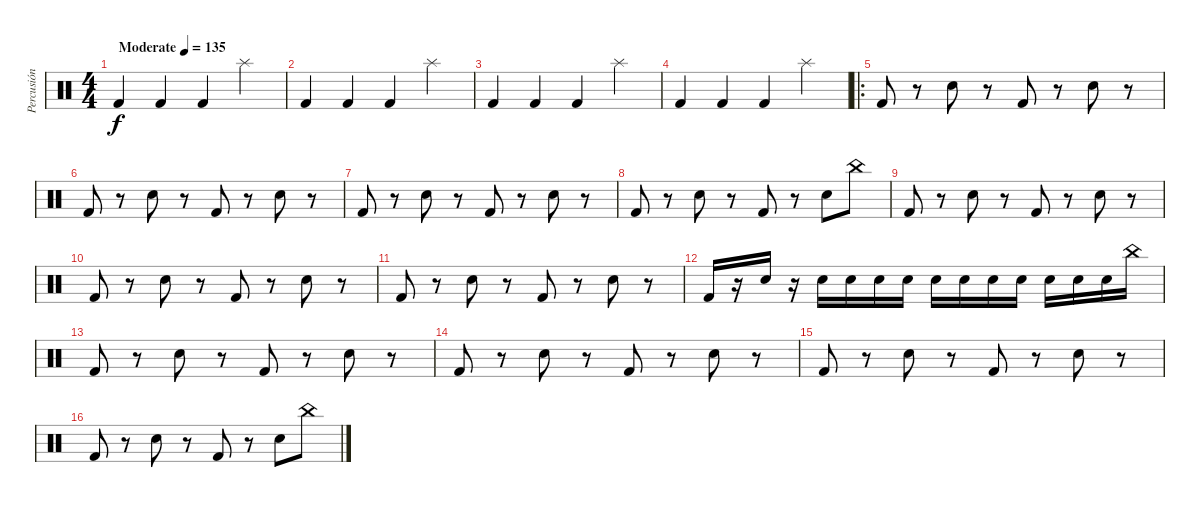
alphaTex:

\track ("Percusión" "Percusión") {instrument percussion}
\staff {score}
\articulation defaults
\ts (4 4)
\tempo (135 "Moderate")
\clef neutral
\ks c "Kick (hit) 2".4{dy f} "Kick (hit) 2".4 "Kick (hit) 2".4 "Splash (hit)".4
|
"Kick (hit) 2".4 "Kick (hit) 2".4 "Kick (hit) 2".4 "Splash (hit)".4 |
"Kick (hit) 2".4 "Kick (hit) 2".4 "Kick (hit) 2".4 "Splash (hit)".4 |
"Kick (hit) 2".4 "Kick (hit) 2".4 "Kick (hit) 2".4 "Splash (hit)".4 |
\ro "Kick (hit) 2".8
r.8 "Electric Snare (hit)".8 r.8 "Kick (hit) 2".8 r.8 "Electric Snare (hit)".8 r.8 |
"Kick (hit) 2".8 r.8 "Electric Snare (hit)".8 r.8 "Kick (hit) 2".8 r.8 "Electric Snare (hit)".8 r.8 |
"Kick (hit) 2".8 r.8 "Electric Snare (hit)".8 r.8 "Kick (hit) 2".8 r.8 "Electric Snare (hit)".8 r.8 |
"Kick (hit) 2".8 r.8 "Electric Snare (hit)".8 r.8 "Kick (hit) 2".8 r.8 "Electric Snare (hit)".8 "China (hit)".8 |
"Kick (hit) 2".8 r.8 "Electric Snare (hit)".8 r.8 "Kick (hit) 2".8 r.8 "Electric Snare (hit)".8 r.8 |
"Kick (hit) 2".8 r.8 "Electric Snare (hit)".8 r.8 "Kick (hit) 2".8 r.8 "Electric Snare (hit)".8 r.8 |
"Kick (hit) 2".8 r.8 "Electric Snare (hit)".8 r.8 "Kick (hit) 2".8 r.8 "Electric Snare (hit)".8 r.8 |
"Kick (hit) 2".16 r.16 "Electric Snare (hit)".16 r.16 "Electric Snare (hit)".16 "Electric Snare (hit)".16 "Electric Snare (hit)".16 "Electric Snare (hit)".16 "Electric Snare (hit)".16 "Electric Snare (hit)".16 "Electric Snare (hit)".16 "Electric Snare (hit)".16 "Electric Snare (hit)".16 "Electric Snare (hit)".16 "Electric Snare (hit)".16 "China (hit)".16 |
"Kick (hit) 2".8 r.8 "Electric Snare (hit)".8 r.8 "Kick (hit) 2".8 r.8 "Electric Snare (hit)".8 r.8 |
"Kick (hit) 2".8 r.8 "Electric Snare (hit)".8 r.8 "Kick (hit) 2".8 r.8 "Electric Snare (hit)".8 r.8 |
"Kick (hit) 2".8 r.8 "Electric Snare (hit)".8 r.8 "Kick (hit) 2".8 r.8 "Electric Snare (hit)".8 r.8 |
"Kick (hit) 2".8 r.8 "Electric Snare (hit)".8 r.8 "Kick (hit) 2".8 r.8 "Electric Snare (hit)".8 "China (hit)".8
